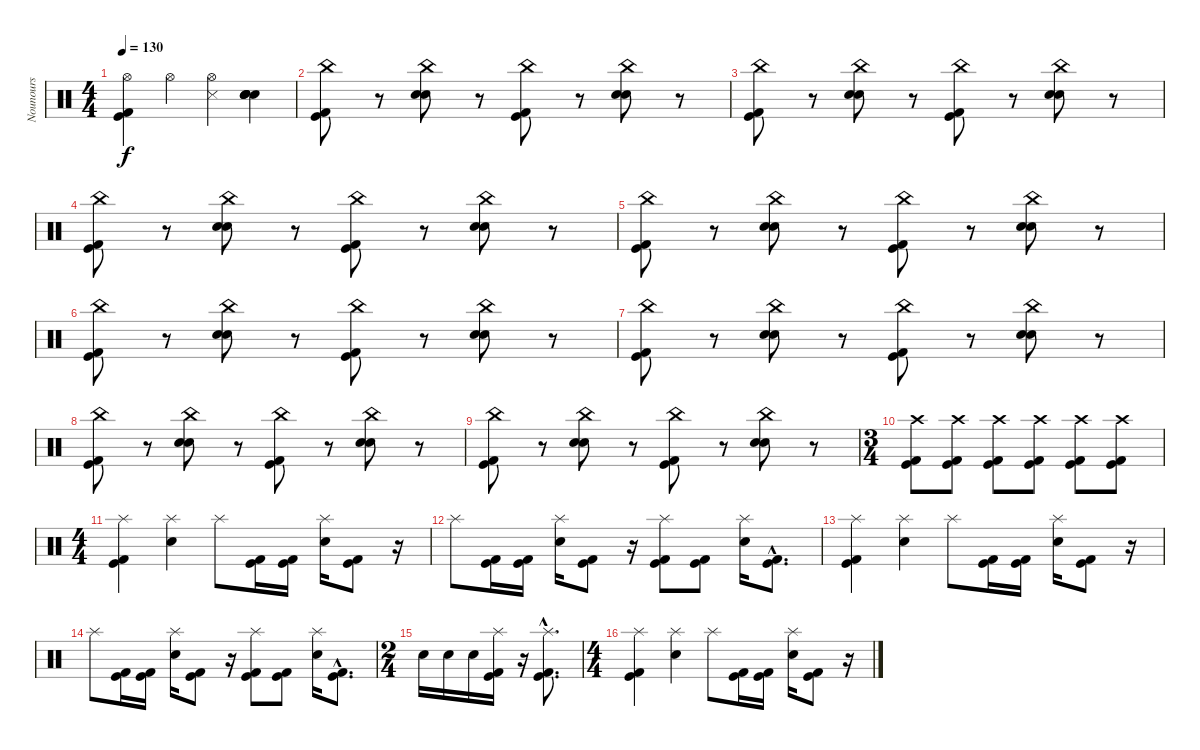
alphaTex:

\track ("Nounours" "Nounours") {instrument percussion}
\staff {score}
\articulation defaults
\ts (4 4)
\tempo 130
\clef neutral
\ks c
("Hi-Hat (open)" "Kick (hit)" "Kick (hit) 2").4{dy f} "Hi-Hat (open)".4 ("Hi-Hat (open)" "Snare (side stick) 3").4 ("Snare (hit) 2" "Snare (hit) 2" "Electric Snare (hit)" "Electric Snare (hit)").4 |
("China (hit)" "Kick (hit) 2" "Kick (hit)").8 r.8 ("China (hit)" "Snare (hit) 2" "Electric Snare (hit)").8 r.8 ("China (hit)" "Kick (hit) 2" "Kick (hit)").8 r.8 ("China (hit)" "Snare (hit) 2" "Electric Snare (hit)").8 r.8 |
("China (hit)" "Kick (hit) 2" "Kick (hit)").8 r.8 ("China (hit)" "Snare (hit) 2" "Electric Snare (hit)").8 r.8 ("China (hit)" "Kick (hit) 2" "Kick (hit)").8 r.8 ("China (hit)" "Snare (hit) 2" "Electric Snare (hit)").8 r.8 |
("China (hit)" "Kick (hit) 2" "Kick (hit)").8 r.8 ("China (hit)" "Snare (hit) 2" "Electric Snare (hit)").8 r.8 ("China (hit)" "Kick (hit) 2" "Kick (hit)").8 r.8 ("China (hit)" "Snare (hit) 2" "Electric Snare (hit)").8 r.8 |
("China (hit)" "Kick (hit) 2" "Kick (hit)").8 r.8 ("China (hit)" "Snare (hit) 2" "Electric Snare (hit)").8 r.8 ("China (hit)" "Kick (hit) 2" "Kick (hit)").8 r.8 ("China (hit)" "Snare (hit) 2" "Electric Snare (hit)").8 r.8 |
("China (hit)" "Kick (hit) 2" "Kick (hit)").8 r.8 ("China (hit)" "Snare (hit) 2" "Electric Snare (hit)").8 r.8 ("China (hit)" "Kick (hit) 2" "Kick (hit)").8 r.8 ("China (hit)" "Snare (hit) 2" "Electric Snare (hit)").8 r.8 |
("China (hit)" "Kick (hit) 2" "Kick (hit)").8 r.8 ("China (hit)" "Snare (hit) 2" "Electric Snare (hit)").8 r.8 ("China (hit)" "Kick (hit) 2" "Kick (hit)").8 r.8 ("China (hit)" "Snare (hit) 2" "Electric Snare (hit)").8 r.8 |
("China (hit)" "Kick (hit) 2" "Kick (hit)").8 r.8 ("China (hit)" "Snare (hit) 2" "Electric Snare (hit)").8 r.8 ("China (hit)" "Kick (hit) 2" "Kick (hit)").8 r.8 ("China (hit)" "Snare (hit) 2" "Electric Snare (hit)").8 r.8 |
("China (hit)" "Kick (hit) 2" "Kick (hit)").8 r.8 ("China (hit)" "Snare (hit) 2" "Electric Snare (hit)").8 r.8 ("China (hit)" "Kick (hit) 2" "Kick (hit)").8 r.8 ("China (hit)" "Snare (hit) 2" "Electric Snare (hit)").8 r.8 |
\ts (3 4)
("Crash high (hit)" "Kick (hit) 2" "Kick (hit)").8 ("Crash high (hit)" "Kick (hit)" "Kick (hit) 2").8 ("Crash high (hit)" "Kick (hit)" "Kick (hit) 2").8 ("Crash high (hit)" "Kick (hit)" "Kick (hit) 2").8 ("Crash high (hit)" "Kick (hit) 2" "Kick (hit)").8 ("Crash high (hit)" "Kick (hit) 2" "Kick (hit)").8 |
\ts (4 4)
("Splash (hit)" "Kick (hit) 2" "Kick (hit)").4 ("Splash (hit)" "Snare (hit) 2").4 "Splash (hit)".8 ("Kick (hit) 2" "Kick (hit)").16 ("Kick (hit)" "Kick (hit) 2").16 ("Splash (hit)" "Snare (hit) 2").16 ("Kick (hit)" "Kick (hit) 2").8 r.16 |
"Splash (hit)".8 ("Kick (hit)" "Kick (hit) 2").16 ("Kick (hit) 2" "Kick (hit)").16 ("Splash (hit)" "Snare (hit) 2").16 ("Kick (hit) 2" "Kick (hit)").8 r.16 ("Splash (hit)" "Kick (hit) 2" "Kick (hit)").8 ("Kick (hit) 2" "Kick (hit)").8 ("Splash (hit)" "Snare (hit) 2").16 ("Kick (hit) 2"{hac} "Kick (hit)"{hac}).8{d} |
("Splash (hit)" "Kick (hit) 2" "Kick (hit)").4 ("Splash (hit)" "Snare (hit) 2").4 "Splash (hit)".8 ("Kick (hit) 2" "Kick (hit)").16 ("Kick (hit)" "Kick (hit) 2").16 ("Splash (hit)" "Snare (hit) 2").16 ("Kick (hit)" "Kick (hit) 2").8 r.16 |
"Splash (hit)".8 ("Kick (hit)" "Kick (hit) 2").16 ("Kick (hit) 2" "Kick (hit)").16 ("Splash (hit)" "Snare (hit) 2").16 ("Kick (hit) 2" "Kick (hit)").8 r.16 ("Splash (hit)" "Kick (hit) 2" "Kick (hit)").8 ("Kick (hit) 2" "Kick (hit)").8 ("Splash (hit)" "Snare (hit) 2").16 ("Kick (hit) 2"{hac} "Kick (hit)"{hac}).8{d} |
\ts (2 4)
"Snare (hit) 2".16 "Snare (hit) 2".16 "Snare (hit) 2".16 ("Splash (hit)" "Kick (hit)" "Kick (hit) 2").16 r.16 ("Splash (hit)"{hac} "Kick (hit)"{hac} "Kick (hit) 2"{hac}).8{d} |
\ts (4 4)
("Splash (hit)" "Kick (hit) 2" "Kick (hit)").4 ("Splash (hit)" "Snare (hit) 2").4 "Splash (hit)".8 ("Kick (hit) 2" "Kick (hit)").16 ("Kick (hit)" "Kick (hit) 2").16 ("Splash (hit)" "Snare (hit) 2").16 ("Kick (hit)" "Kick (hit) 2").8 r.16
